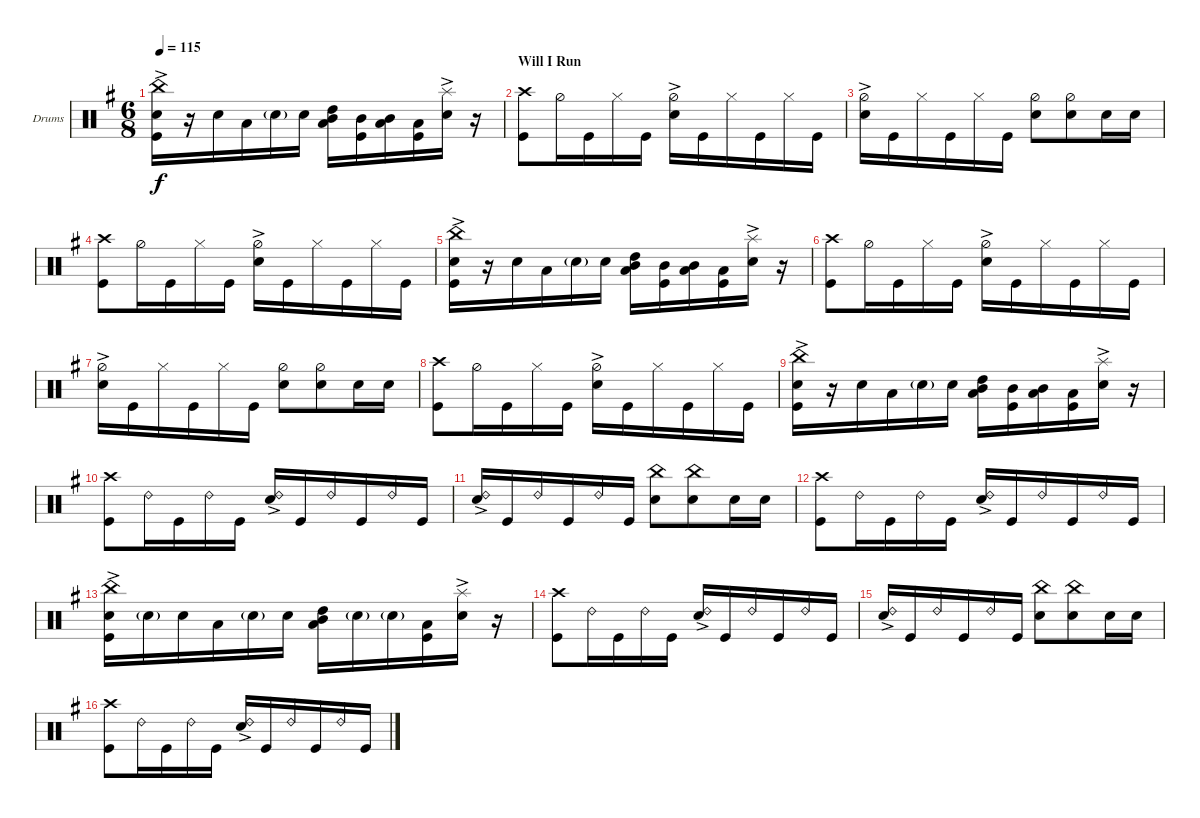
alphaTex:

\bracketExtendMode groupsimilarinstruments
\firstSystemTrackNameOrientation horizontal
\otherSystemsTrackNameOrientation horizontal
\track ("Drumkit" "Drums") {instrument percussion}
\staff {score}
\articulation defaults
\ts (6 8)
\tempo 115
\clef neutral
\ks eminor
("Kick (hit)" "Snare (hit) 2"{ac} "China (hit)").16{dy f} r.16 "Snare (hit) 2".16 "Low Tom (hit)".16 "Snare (hit) 2"{g}.16 "Snare (hit) 2".16 ("High Tom (hit)" "Mid Tom (hit)" "Low Tom (hit)").16 ("Mid Tom (hit)" "Kick (hit)").16 ("Low Tom (hit)" "Mid Tom (hit)").16 ("Low Tom (hit)" "Kick (hit)").16 ("Splash (hit)" "Snare (hit) 2"{ac}).16 r.16 |
\section ("" "Will I Run")
("Kick (hit)" "Crash high (hit)").8 "Hi-Hat (half)".16 "Kick (hit)".16 "Hi-Hat (closed)".16 "Kick (hit)".16 ("Hi-Hat (half)" "Snare (hit) 2"{ac}).16 "Kick (hit)".16 "Hi-Hat (closed)".16 "Kick (hit)".16 "Hi-Hat (closed)".16 "Kick (hit)".16 |
("Hi-Hat (half)" "Snare (hit) 2"{ac}).16 "Kick (hit)".16 "Hi-Hat (closed)".16 "Kick (hit)".16 "Hi-Hat (closed)".16 "Kick (hit)".16 ("Snare (hit) 2" "Hi-Hat (half)").8 ("Snare (hit) 2" "Hi-Hat (half)").8 "Snare (hit) 2".16 "Snare (hit) 2".16 |
("Kick (hit)" "Crash high (hit)").8 "Hi-Hat (half)".16 "Kick (hit)".16 "Hi-Hat (closed)".16 "Kick (hit)".16 ("Hi-Hat (half)" "Snare (hit) 2"{ac}).16 "Kick (hit)".16 "Hi-Hat (closed)".16 "Kick (hit)".16 "Hi-Hat (closed)".16 "Kick (hit)".16 |
("Kick (hit)" "Snare (hit) 2"{ac} "China (hit)").16 r.16 "Snare (hit) 2".16 "Low Tom (hit)".16 "Snare (hit) 2"{g}.16 "Snare (hit) 2".16 ("High Tom (hit)" "Mid Tom (hit)" "Low Tom (hit)").16 ("Mid Tom (hit)" "Kick (hit)").16 ("Low Tom (hit)" "Mid Tom (hit)").16 ("Low Tom (hit)" "Kick (hit)").16 ("Splash (hit)" "Snare (hit) 2"{ac}).16 r.16 |
("Kick (hit)" "Crash high (hit)").8 "Hi-Hat (half)".16 "Kick (hit)".16 "Hi-Hat (closed)".16 "Kick (hit)".16 ("Hi-Hat (half)" "Snare (hit) 2"{ac}).16 "Kick (hit)".16 "Hi-Hat (closed)".16 "Kick (hit)".16 "Hi-Hat (closed)".16 "Kick (hit)".16 |
("Hi-Hat (half)" "Snare (hit) 2"{ac}).16 "Kick (hit)".16 "Hi-Hat (closed)".16 "Kick (hit)".16 "Hi-Hat (closed)".16 "Kick (hit)".16 ("Snare (hit) 2" "Hi-Hat (half)").8 ("Snare (hit) 2" "Hi-Hat (half)").8 "Snare (hit) 2".16 "Snare (hit) 2".16 |
("Kick (hit)" "Crash high (hit)").8 "Hi-Hat (half)".16 "Kick (hit)".16 "Hi-Hat (closed)".16 "Kick (hit)".16 ("Hi-Hat (half)" "Snare (hit) 2"{ac}).16 "Kick (hit)".16 "Hi-Hat (closed)".16 "Kick (hit)".16 "Hi-Hat (closed)".16 "Kick (hit)".16 |
("Kick (hit)" "Snare (hit) 2"{ac} "China (hit)").16 r.16 "Snare (hit) 2".16 "Low Tom (hit)".16 "Snare (hit) 2"{g}.16 "Snare (hit) 2".16 ("High Tom (hit)" "Mid Tom (hit)" "Low Tom (hit)").16 ("Mid Tom (hit)" "Kick (hit)").16 ("Low Tom (hit)" "Mid Tom (hit)").16 ("Low Tom (hit)" "Kick (hit)").16 ("Splash (hit)" "Snare (hit) 2"{ac}).16 r.16 |
("Kick (hit)" "Crash high (hit)").8 "Ride (bell) 2".16 "Kick (hit)".16 "Ride (bell) 2".16 "Kick (hit)".16 ("Snare (hit) 2"{ac} "Ride (bell) 2").16 "Kick (hit)".16 "Ride (bell) 2".16 "Kick (hit)".16 "Ride (bell) 2".16 "Kick (hit)".16 |
("Snare (hit) 2"{ac} "Ride (bell) 2").16 "Kick (hit)".16 "Ride (bell) 2".16 "Kick (hit)".16 "Ride (bell) 2".16 "Kick (hit)".16 ("Snare (hit) 2" "China (hit)").8 ("Snare (hit) 2" "China (hit)").8 "Snare (hit) 2".16 "Snare (hit) 2".16 |
("Kick (hit)" "Crash high (hit)").8 "Ride (bell) 2".16 "Kick (hit)".16 "Ride (bell) 2".16 "Kick (hit)".16 ("Snare (hit) 2"{ac} "Ride (bell) 2").16 "Kick (hit)".16 "Ride (bell) 2".16 "Kick (hit)".16 "Ride (bell) 2".16 "Kick (hit)".16 |
("Kick (hit)" "Snare (hit) 2"{ac} "China (hit)").16 "Snare (hit) 2"{g}.16 "Snare (hit) 2".16 "Low Tom (hit)".16 "Snare (hit) 2"{g}.16 "Snare (hit) 2".16 ("High Tom (hit)" "Mid Tom (hit)" "Low Tom (hit)").16 "Snare (hit) 2"{g}.16 "Snare (hit) 2"{g}.16 ("Low Tom (hit)" "Kick (hit)").16 ("Splash (hit)" "Snare (hit) 2"{ac}).16 r.16 |
("Kick (hit)" "Crash high (hit)").8 "Ride (bell) 2".16 "Kick (hit)".16 "Ride (bell) 2".16 "Kick (hit)".16 ("Snare (hit) 2"{ac} "Ride (bell) 2").16 "Kick (hit)".16 "Ride (bell) 2".16 "Kick (hit)".16 "Ride (bell) 2".16 "Kick (hit)".16 |
("Snare (hit) 2"{ac} "Ride (bell) 2").16 "Kick (hit)".16 "Ride (bell) 2".16 "Kick (hit)".16 "Ride (bell) 2".16 "Kick (hit)".16 ("Snare (hit) 2" "China (hit)").8 ("Snare (hit) 2" "China (hit)").8 "Snare (hit) 2".16 "Snare (hit) 2".16 |
("Kick (hit)" "Crash high (hit)").8 "Ride (bell) 2".16 "Kick (hit)".16 "Ride (bell) 2".16 "Kick (hit)".16 ("Snare (hit) 2"{ac} "Ride (bell) 2").16 "Kick (hit)".16 "Ride (bell) 2".16 "Kick (hit)".16 "Ride (bell) 2".16 "Kick (hit)".16
